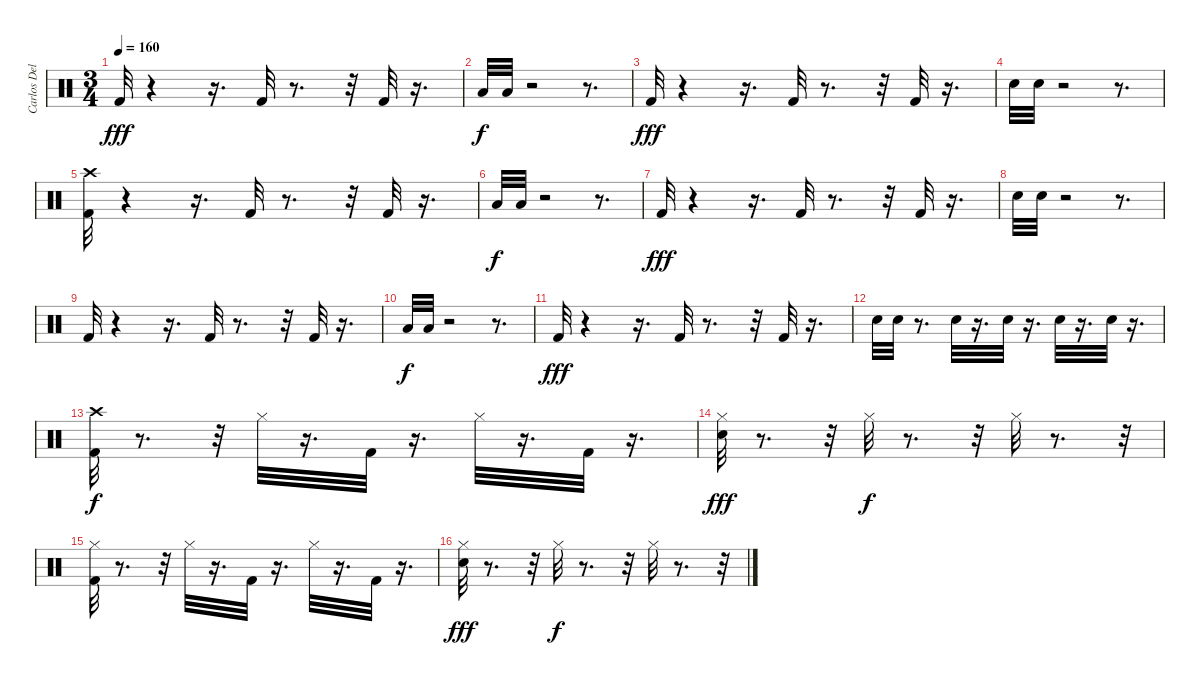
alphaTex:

\track ("Carlos Delgado" "Carlos Del") {instrument percussion}
\staff {score}
\articulation defaults
\ts (3 4)
\tempo 160
\clef neutral
\ks c "Kick (hit) 2".32{dy fff}
r.4 r.16{d} "Kick (hit) 2".32 r.8{d} r.32 "Kick (hit) 2".32 r.16{d} |
"Low Floor Tom (hit)".32{dy f} "Low Floor Tom (hit)".32 r.2 r.8{d} |
"Kick (hit) 2".32{dy fff} r.4 r.16{d} "Kick (hit) 2".32 r.8{d} r.32 "Kick (hit) 2".32 r.16{d} |
"Electric Snare (hit)".32 "Electric Snare (hit)".32 r.2 r.8{d} |
("Crash high (hit)" "Kick (hit) 2").32 r.4 r.16{d} "Kick (hit) 2".32 r.8{d} r.32 "Kick (hit) 2".32 r.16{d} |
"Low Floor Tom (hit)".32{dy f} "Low Floor Tom (hit)".32 r.2 r.8{d} |
"Kick (hit) 2".32{dy fff} r.4 r.16{d} "Kick (hit) 2".32 r.8{d} r.32 "Kick (hit) 2".32 r.16{d} |
"Electric Snare (hit)".32 "Electric Snare (hit)".32 r.2 r.8{d} |
"Kick (hit) 2".32 r.4 r.16{d} "Kick (hit) 2".32 r.8{d} r.32 "Kick (hit) 2".32 r.16{d} |
"Low Floor Tom (hit)".32{dy f} "Low Floor Tom (hit)".32 r.2 r.8{d} |
"Kick (hit) 2".32{dy fff} r.4 r.16{d} "Kick (hit) 2".32 r.8{d} r.32 "Kick (hit) 2".32 r.16{d} |
"Electric Snare (hit)".32 "Electric Snare (hit)".32 r.8{d} "Electric Snare (hit)".32 r.16{d} "Electric Snare (hit)".32 r.16{d} "Electric Snare (hit)".32 r.16{d} "Electric Snare (hit)".32 r.16{d} |
("Crash high (hit)" "Kick (hit) 2").32{dy f} r.8{d} r.32 "Hi-Hat (closed)".32 r.16{d} "Kick (hit) 2".32 r.16{d} "Hi-Hat (closed)".32 r.16{d} "Kick (hit) 2".32 r.16{d} |
("Electric Snare (hit)" "Hi-Hat (closed)").32{dy fff} r.8{d} r.32 "Hi-Hat (closed)".32{dy f} r.8{d} r.32 "Hi-Hat (closed)".32 r.8{d} r.32 |
("Hi-Hat (closed)" "Kick (hit) 2").32 r.8{d} r.32 "Hi-Hat (closed)".32 r.16{d} "Kick (hit) 2".32 r.16{d} "Hi-Hat (closed)".32 r.16{d} "Kick (hit) 2".32 r.16{d} |
("Electric Snare (hit)" "Hi-Hat (closed)").32{dy fff} r.8{d} r.32 "Hi-Hat (closed)".32{dy f} r.8{d} r.32 "Hi-Hat (closed)".32 r.8{d} r.32
